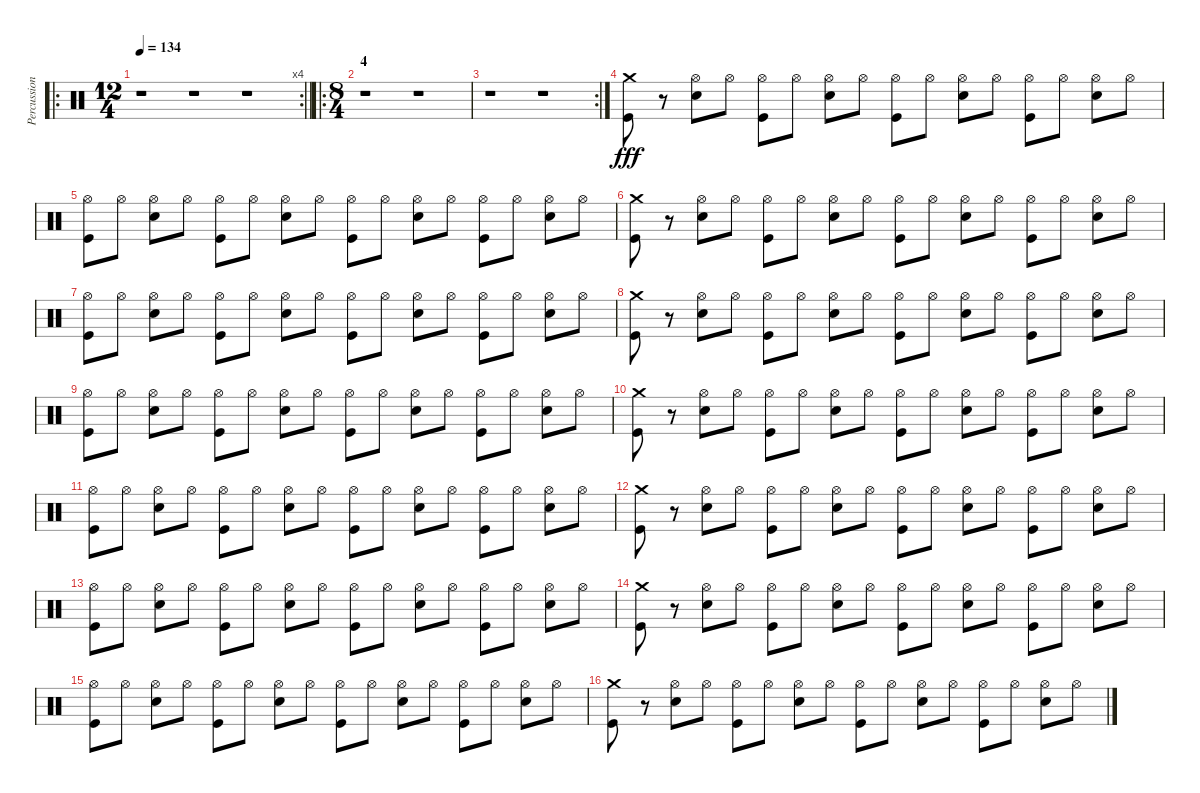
\track ("Percussion" "Percussion") {instrument percussion}
\staff {score}
\articulation defaults
\ro
\rc 4
\ts (12 4)
\tempo 134
\clef neutral
\barLineRight lightlight
\ks c
r.1{dy fff} r.1 r.1 |
\ro
\ts (8 4)
\section ("" "4")
r.1 r.1 |
\rc 2
r.1 r.1 |
("Crash medium (hit)" "Kick (hit)").8 r.8 ("Hi-Hat (open)" "Snare (hit) 2").8 "Hi-Hat (open)".8 ("Hi-Hat (open)" "Kick (hit)").8 "Hi-Hat (open)".8 ("Hi-Hat (open)" "Snare (hit) 2").8 "Hi-Hat (open)".8 ("Hi-Hat (open)" "Kick (hit)").8 "Hi-Hat (open)".8 ("Hi-Hat (open)" "Snare (hit) 2").8 "Hi-Hat (open)".8 ("Hi-Hat (open)" "Kick (hit)").8 "Hi-Hat (open)".8 ("Hi-Hat (open)" "Snare (hit) 2").8 "Hi-Hat (open)".8 |
("Hi-Hat (open)" "Kick (hit)").8 "Hi-Hat (open)".8 ("Hi-Hat (open)" "Snare (hit) 2").8 "Hi-Hat (open)".8 ("Hi-Hat (open)" "Kick (hit)").8 "Hi-Hat (open)".8 ("Hi-Hat (open)" "Snare (hit) 2").8 "Hi-Hat (open)".8 ("Hi-Hat (open)" "Kick (hit)").8 "Hi-Hat (open)".8 ("Hi-Hat (open)" "Snare (hit) 2").8 "Hi-Hat (open)".8 ("Hi-Hat (open)" "Kick (hit)").8 "Hi-Hat (open)".8 ("Hi-Hat (open)" "Snare (hit) 2").8 "Hi-Hat (open)".8 |
("Crash medium (hit)" "Kick (hit)").8 r.8 ("Hi-Hat (open)" "Snare (hit) 2").8 "Hi-Hat (open)".8 ("Hi-Hat (open)" "Kick (hit)").8 "Hi-Hat (open)".8 ("Hi-Hat (open)" "Snare (hit) 2").8 "Hi-Hat (open)".8 ("Hi-Hat (open)" "Kick (hit)").8 "Hi-Hat (open)".8 ("Hi-Hat (open)" "Snare (hit) 2").8 "Hi-Hat (open)".8 ("Hi-Hat (open)" "Kick (hit)").8 "Hi-Hat (open)".8 ("Hi-Hat (open)" "Snare (hit) 2").8 "Hi-Hat (open)".8 |
("Hi-Hat (open)" "Kick (hit)").8 "Hi-Hat (open)".8 ("Hi-Hat (open)" "Snare (hit) 2").8 "Hi-Hat (open)".8 ("Hi-Hat (open)" "Kick (hit)").8 "Hi-Hat (open)".8 ("Hi-Hat (open)" "Snare (hit) 2").8 "Hi-Hat (open)".8 ("Hi-Hat (open)" "Kick (hit)").8 "Hi-Hat (open)".8 ("Hi-Hat (open)" "Snare (hit) 2").8 "Hi-Hat (open)".8 ("Hi-Hat (open)" "Kick (hit)").8 "Hi-Hat (open)".8 ("Hi-Hat (open)" "Snare (hit) 2").8 "Hi-Hat (open)".8 |
("Crash medium (hit)" "Kick (hit)").8 r.8 ("Hi-Hat (open)" "Snare (hit) 2").8 "Hi-Hat (open)".8 ("Hi-Hat (open)" "Kick (hit)").8 "Hi-Hat (open)".8 ("Hi-Hat (open)" "Snare (hit) 2").8 "Hi-Hat (open)".8 ("Hi-Hat (open)" "Kick (hit)").8 "Hi-Hat (open)".8 ("Hi-Hat (open)" "Snare (hit) 2").8 "Hi-Hat (open)".8 ("Hi-Hat (open)" "Kick (hit)").8 "Hi-Hat (open)".8 ("Hi-Hat (open)" "Snare (hit) 2").8 "Hi-Hat (open)".8 |
("Hi-Hat (open)" "Kick (hit)").8 "Hi-Hat (open)".8 ("Hi-Hat (open)" "Snare (hit) 2").8 "Hi-Hat (open)".8 ("Hi-Hat (open)" "Kick (hit)").8 "Hi-Hat (open)".8 ("Hi-Hat (open)" "Snare (hit) 2").8 "Hi-Hat (open)".8 ("Hi-Hat (open)" "Kick (hit)").8 "Hi-Hat (open)".8 ("Hi-Hat (open)" "Snare (hit) 2").8 "Hi-Hat (open)".8 ("Hi-Hat (open)" "Kick (hit)").8 "Hi-Hat (open)".8 ("Hi-Hat (open)" "Snare (hit) 2").8 "Hi-Hat (open)".8 |
("Crash medium (hit)" "Kick (hit)").8 r.8 ("Hi-Hat (open)" "Snare (hit) 2").8 "Hi-Hat (open)".8 ("Hi-Hat (open)" "Kick (hit)").8 "Hi-Hat (open)".8 ("Hi-Hat (open)" "Snare (hit) 2").8 "Hi-Hat (open)".8 ("Hi-Hat (open)" "Kick (hit)").8 "Hi-Hat (open)".8 ("Hi-Hat (open)" "Snare (hit) 2").8 "Hi-Hat (open)".8 ("Hi-Hat (open)" "Kick (hit)").8 "Hi-Hat (open)".8 ("Hi-Hat (open)" "Snare (hit) 2").8 "Hi-Hat (open)".8 |
("Hi-Hat (open)" "Kick (hit)").8 "Hi-Hat (open)".8 ("Hi-Hat (open)" "Snare (hit) 2").8 "Hi-Hat (open)".8 ("Hi-Hat (open)" "Kick (hit)").8 "Hi-Hat (open)".8 ("Hi-Hat (open)" "Snare (hit) 2").8 "Hi-Hat (open)".8 ("Hi-Hat (open)" "Kick (hit)").8 "Hi-Hat (open)".8 ("Hi-Hat (open)" "Snare (hit) 2").8 "Hi-Hat (open)".8 ("Hi-Hat (open)" "Kick (hit)").8 "Hi-Hat (open)".8 ("Hi-Hat (open)" "Snare (hit) 2").8 "Hi-Hat (open)".8 |
("Crash medium (hit)" "Kick (hit)").8 r.8 ("Hi-Hat (open)" "Snare (hit) 2").8 "Hi-Hat (open)".8 ("Hi-Hat (open)" "Kick (hit)").8 "Hi-Hat (open)".8 ("Hi-Hat (open)" "Snare (hit) 2").8 "Hi-Hat (open)".8 ("Hi-Hat (open)" "Kick (hit)").8 "Hi-Hat (open)".8 ("Hi-Hat (open)" "Snare (hit) 2").8 "Hi-Hat (open)".8 ("Hi-Hat (open)" "Kick (hit)").8 "Hi-Hat (open)".8 ("Hi-Hat (open)" "Snare (hit) 2").8 "Hi-Hat (open)".8 |
("Hi-Hat (open)" "Kick (hit)").8 "Hi-Hat (open)".8 ("Hi-Hat (open)" "Snare (hit) 2").8 "Hi-Hat (open)".8 ("Hi-Hat (open)" "Kick (hit)").8 "Hi-Hat (open)".8 ("Hi-Hat (open)" "Snare (hit) 2").8 "Hi-Hat (open)".8 ("Hi-Hat (open)" "Kick (hit)").8 "Hi-Hat (open)".8 ("Hi-Hat (open)" "Snare (hit) 2").8 "Hi-Hat (open)".8 ("Hi-Hat (open)" "Kick (hit)").8 "Hi-Hat (open)".8 ("Hi-Hat (open)" "Snare (hit) 2").8 "Hi-Hat (open)".8 |
("Crash medium (hit)" "Kick (hit)").8 r.8 ("Hi-Hat (open)" "Snare (hit) 2").8 "Hi-Hat (open)".8 ("Hi-Hat (open)" "Kick (hit)").8 "Hi-Hat (open)".8 ("Hi-Hat (open)" "Snare (hit) 2").8 "Hi-Hat (open)".8 ("Hi-Hat (open)" "Kick (hit)").8 "Hi-Hat (open)".8 ("Hi-Hat (open)" "Snare (hit) 2").8 "Hi-Hat (open)".8 ("Hi-Hat (open)" "Kick (hit)").8 "Hi-Hat (open)".8 ("Hi-Hat (open)" "Snare (hit) 2").8 "Hi-Hat (open)".8 |
("Hi-Hat (open)" "Kick (hit)").8 "Hi-Hat (open)".8 ("Hi-Hat (open)" "Snare (hit) 2").8 "Hi-Hat (open)".8 ("Hi-Hat (open)" "Kick (hit)").8 "Hi-Hat (open)".8 ("Hi-Hat (open)" "Snare (hit) 2").8 "Hi-Hat (open)".8 ("Hi-Hat (open)" "Kick (hit)").8 "Hi-Hat (open)".8 ("Hi-Hat (open)" "Snare (hit) 2").8 "Hi-Hat (open)".8 ("Hi-Hat (open)" "Kick (hit)").8 "Hi-Hat (open)".8 ("Hi-Hat (open)" "Snare (hit) 2").8 "Hi-Hat (open)".8 |
("Crash medium (hit)" "Kick (hit)").8 r.8 ("Hi-Hat (open)" "Snare (hit) 2").8 "Hi-Hat (open)".8 ("Hi-Hat (open)" "Kick (hit)").8 "Hi-Hat (open)".8 ("Hi-Hat (open)" "Snare (hit) 2").8 "Hi-Hat (open)".8 ("Hi-Hat (open)" "Kick (hit)").8 "Hi-Hat (open)".8 ("Hi-Hat (open)" "Snare (hit) 2").8 "Hi-Hat (open)".8 ("Hi-Hat (open)" "Kick (hit)").8 "Hi-Hat (open)".8 ("Hi-Hat (open)" "Snare (hit) 2").8 "Hi-Hat (open)".8
